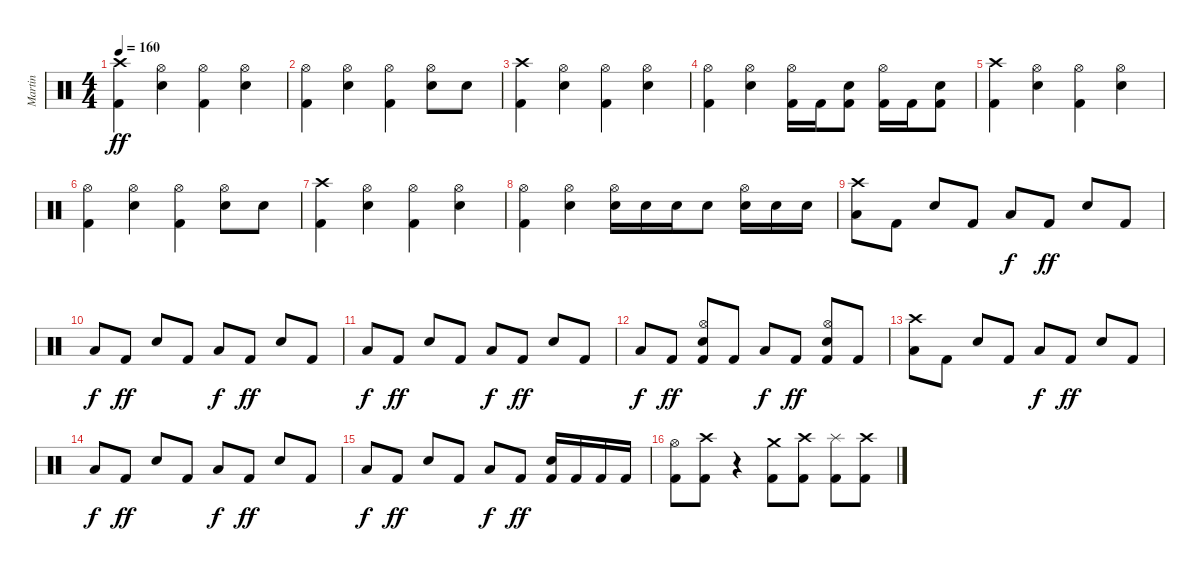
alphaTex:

\track ("Martin" "Martin") {instrument percussion}
\staff {score}
\articulation defaults
\ts (4 4)
\tempo 160
\clef neutral
\ks c
("Crash high (hit)" "Kick (hit) 2").4{dy ff} ("Hi-Hat (open)" "Electric Snare (hit)").4 ("Hi-Hat (open)" "Kick (hit) 2").4 ("Hi-Hat (open)" "Electric Snare (hit)").4 |
("Hi-Hat (open)" "Kick (hit) 2").4 ("Hi-Hat (open)" "Electric Snare (hit)").4 ("Hi-Hat (open)" "Kick (hit) 2").4 ("Hi-Hat (open)" "Electric Snare (hit)").8 "Electric Snare (hit)".8 |
("Crash high (hit)" "Kick (hit) 2").4 ("Hi-Hat (open)" "Electric Snare (hit)").4 ("Hi-Hat (open)" "Kick (hit) 2").4 ("Hi-Hat (open)" "Electric Snare (hit)").4 |
("Hi-Hat (open)" "Kick (hit) 2").4 ("Hi-Hat (open)" "Electric Snare (hit)").4 ("Hi-Hat (open)" "Kick (hit) 2").16 "Kick (hit) 2".16 ("Electric Snare (hit)" "Kick (hit) 2").8 ("Hi-Hat (open)" "Kick (hit) 2").16 "Kick (hit) 2".16 ("Electric Snare (hit)" "Kick (hit) 2").8 |
("Crash high (hit)" "Kick (hit) 2").4 ("Hi-Hat (open)" "Electric Snare (hit)").4 ("Hi-Hat (open)" "Kick (hit) 2").4 ("Hi-Hat (open)" "Electric Snare (hit)").4 |
("Hi-Hat (open)" "Kick (hit) 2").4 ("Hi-Hat (open)" "Electric Snare (hit)").4 ("Hi-Hat (open)" "Kick (hit) 2").4 ("Hi-Hat (open)" "Electric Snare (hit)").8 "Electric Snare (hit)".8 |
("Crash high (hit)" "Kick (hit) 2").4 ("Hi-Hat (open)" "Electric Snare (hit)").4 ("Hi-Hat (open)" "Kick (hit) 2").4 ("Hi-Hat (open)" "Electric Snare (hit)").4 |
("Hi-Hat (open)" "Kick (hit) 2").4 ("Hi-Hat (open)" "Electric Snare (hit)").4 ("Hi-Hat (open)" "Electric Snare (hit)").16 "Electric Snare (hit)".16 "Electric Snare (hit)".16 "Electric Snare (hit)".8 ("Hi-Hat (open)" "Electric Snare (hit)").16 "Electric Snare (hit)".16 "Electric Snare (hit)".16 |
("Crash high (hit)" "Low Floor Tom (hit)").8 "Kick (hit) 2".8 "Electric Snare (hit)".8 "Kick (hit) 2".8 "Low Floor Tom (hit)".8{dy f} "Kick (hit) 2".8{dy ff} "Electric Snare (hit)".8 "Kick (hit) 2".8 |
"Low Floor Tom (hit)".8{dy f} "Kick (hit) 2".8{dy ff} "Electric Snare (hit)".8 "Kick (hit) 2".8 "Low Floor Tom (hit)".8{dy f} "Kick (hit) 2".8{dy ff} "Electric Snare (hit)".8 "Kick (hit) 2".8 |
"Low Floor Tom (hit)".8{dy f} "Kick (hit) 2".8{dy ff} "Electric Snare (hit)".8 "Kick (hit) 2".8 "Low Floor Tom (hit)".8{dy f} "Kick (hit) 2".8{dy ff} "Electric Snare (hit)".8 "Kick (hit) 2".8 |
"Low Floor Tom (hit)".8{dy f} "Kick (hit) 2".8{dy ff} ("Hi-Hat (open)" "Electric Snare (hit)" "Kick (hit) 2").8 "Kick (hit) 2".8 "Low Floor Tom (hit)".8{dy f} "Kick (hit) 2".8{dy ff} ("Hi-Hat (open)" "Electric Snare (hit)" "Kick (hit) 2").8 "Kick (hit) 2".8 |
("Crash high (hit)" "Low Floor Tom (hit)").8 "Kick (hit) 2".8 "Electric Snare (hit)".8 "Kick (hit) 2".8 "Low Floor Tom (hit)".8{dy f} "Kick (hit) 2".8{dy ff} "Electric Snare (hit)".8 "Kick (hit) 2".8 |
"Low Floor Tom (hit)".8{dy f} "Kick (hit) 2".8{dy ff} "Electric Snare (hit)".8 "Kick (hit) 2".8 "Low Floor Tom (hit)".8{dy f} "Kick (hit) 2".8{dy ff} "Electric Snare (hit)".8 "Kick (hit) 2".8 |
"Low Floor Tom (hit)".8{dy f} "Kick (hit) 2".8{dy ff} "Electric Snare (hit)".8 "Kick (hit) 2".8 "Low Floor Tom (hit)".8{dy f} "Kick (hit) 2".8{dy ff} ("Electric Snare (hit)" "Kick (hit) 2").16 "Kick (hit) 2".16 "Kick (hit) 2".16 "Kick (hit) 2".16 |
("Hi-Hat (open)" "Kick (hit) 2").8 ("Crash high (hit)" "Kick (hit) 2").8 r.4 ("Crash medium (hit)" "Kick (hit) 2").8 ("Crash high (hit)" "Kick (hit) 2").8 ("Splash (hit)" "Kick (hit) 2").8 ("Crash high (hit)" "Kick (hit) 2").8
